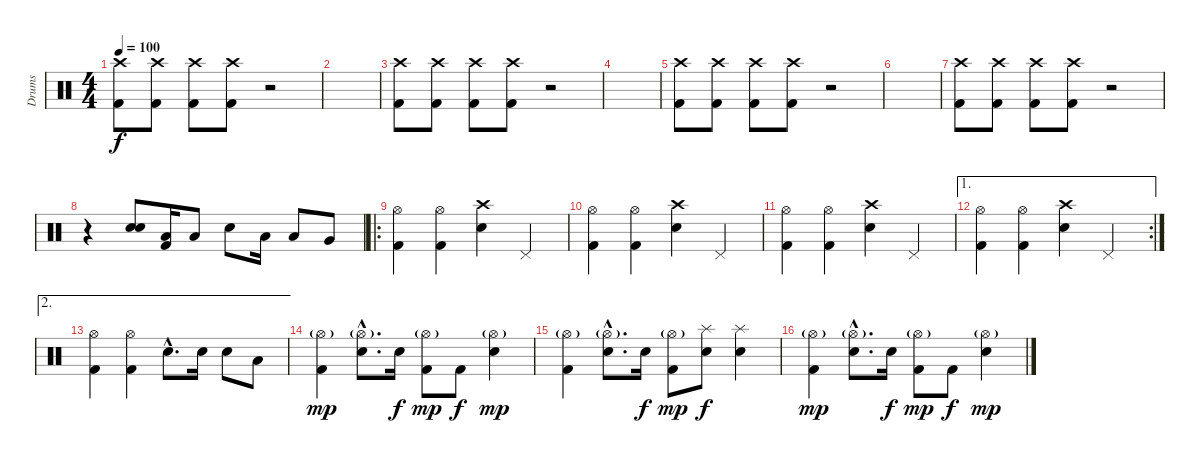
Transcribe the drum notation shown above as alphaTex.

\track ("Drums" "Drums") {instrument percussion}
\staff {score}
\articulation defaults
\ts (4 4)
\tempo 100
\clef neutral
\ks c
("Crash high (hit)" "Kick (hit) 2").8{dy f} ("Crash high (hit)" "Kick (hit) 2").8 ("Crash high (hit)" "Kick (hit) 2").8 ("Crash high (hit)" "Kick (hit) 2").8 r.2 |
|
("Crash high (hit)" "Kick (hit) 2").8 ("Crash high (hit)" "Kick (hit) 2").8 ("Crash high (hit)" "Kick (hit) 2").8 ("Crash high (hit)" "Kick (hit) 2").8 r.2 |
|
("Crash high (hit)" "Kick (hit) 2").8 ("Crash high (hit)" "Kick (hit) 2").8 ("Crash high (hit)" "Kick (hit) 2").8 ("Crash high (hit)" "Kick (hit) 2").8 r.2 |
|
("Crash high (hit)" "Kick (hit) 2").8 ("Crash high (hit)" "Kick (hit) 2").8 ("Crash high (hit)" "Kick (hit) 2").8 ("Crash high (hit)" "Kick (hit) 2").8 r.2 |
r.4 ("Electric Snare (hit)" "Electric Snare (hit)").8{bd 240} ("Low Tom (hit)" "Kick (hit) 2").16 "Low Tom (hit)".8 "Electric Snare (hit)".8 "Low Tom (hit)".16 "Low Tom (hit)".8 "Very Low Tom (hit)".8 |
\ro
("Hi-Hat (open)" "Kick (hit) 2").4 ("Hi-Hat (open)" "Kick (hit) 2").4 ("Crash high (hit)" "Electric Snare (hit)").4 "Pedal Hi-Hat (hit)".4 |
("Hi-Hat (open)" "Kick (hit) 2").4 ("Hi-Hat (open)" "Kick (hit) 2").4 ("Crash high (hit)" "Electric Snare (hit)").4 "Pedal Hi-Hat (hit)".4 |
("Hi-Hat (open)" "Kick (hit) 2").4 ("Hi-Hat (open)" "Kick (hit) 2").4 ("Crash high (hit)" "Electric Snare (hit)").4 "Pedal Hi-Hat (hit)".4 |
\ae 1
\rc 2
("Hi-Hat (open)" "Kick (hit) 2").4 ("Hi-Hat (open)" "Kick (hit) 2").4 ("Crash high (hit)" "Electric Snare (hit)").4 "Pedal Hi-Hat (hit)".4 |
\ae 2
("Hi-Hat (open)" "Kick (hit) 2").4 ("Hi-Hat (open)" "Kick (hit) 2").4 "Electric Snare (hit)"{hac}.8{d} "Electric Snare (hit)".16 "Electric Snare (hit)".8 "Low Tom (hit)".8 |
("Hi-Hat (open)"{g} "Kick (hit) 2").4{dy mp} ("Hi-Hat (open)"{g hac} "Electric Snare (hit)"{hac}).8{d} "Electric Snare (hit)".16{dy f} ("Hi-Hat (open)"{g} "Kick (hit) 2").8{dy mp} "Kick (hit) 2".8{dy f} ("Hi-Hat (open)"{g} "Electric Snare (hit)").4{dy mp} |
("Hi-Hat (open)"{g} "Kick (hit) 2").4 ("Hi-Hat (open)"{g hac} "Electric Snare (hit)"{hac}).8{d} "Electric Snare (hit)".16{dy f} ("Hi-Hat (open)"{g} "Kick (hit) 2").8{dy mp} ("Splash (hit)" "Electric Snare (hit)").8{dy f} ("Splash (hit)" "Electric Snare (hit)").4 |
("Hi-Hat (open)"{g} "Kick (hit) 2").4{dy mp} ("Hi-Hat (open)"{g hac} "Electric Snare (hit)"{hac}).8{d} "Electric Snare (hit)".16{dy f} ("Hi-Hat (open)"{g} "Kick (hit) 2").8{dy mp} "Kick (hit) 2".8{dy f} ("Hi-Hat (open)"{g} "Electric Snare (hit)").4{dy mp}
